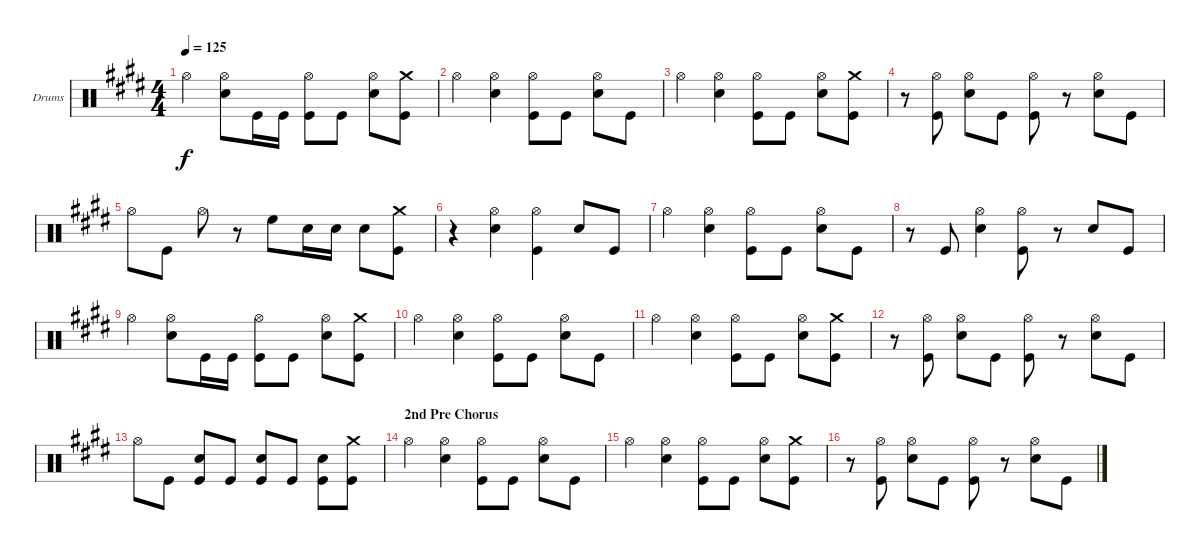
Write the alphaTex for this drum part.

\bracketExtendMode groupsimilarinstruments
\firstSystemTrackNameOrientation horizontal
\otherSystemsTrackNameOrientation horizontal
\track ("Drumkit" "Drums") {instrument percussion}
\staff {score}
\articulation defaults
\ts (4 4)
\tempo 125
\clef neutral
\ks e "Hi-Hat (open)".4{dy f}
("Hi-Hat (open)" "Snare (hit) 2").8 "Kick (hit)".16 "Kick (hit)".16 ("Hi-Hat (open)" "Kick (hit)").8 "Kick (hit)".8 ("Hi-Hat (open)" "Snare (hit) 2").8 ("Crash medium (hit)" "Kick (hit)").8 |
"Hi-Hat (open)".4 ("Hi-Hat (open)" "Snare (hit) 2").4 ("Hi-Hat (open)" "Kick (hit)").8 "Kick (hit)".8 ("Hi-Hat (open)" "Snare (hit) 2").8 "Kick (hit)".8 |
"Hi-Hat (open)".4 ("Hi-Hat (open)" "Snare (hit) 2").4 ("Hi-Hat (open)" "Kick (hit)").8 "Kick (hit)".8 ("Hi-Hat (open)" "Snare (hit) 2").8 ("Crash medium (hit)" "Kick (hit)").8 |
r.8 ("Hi-Hat (open)" "Kick (hit)").8 ("Hi-Hat (open)" "Snare (hit) 2").8 "Kick (hit)".8 ("Hi-Hat (open)" "Kick (hit)").8 r.8 ("Hi-Hat (open)" "Snare (hit) 2").8 "Kick (hit)".8 |
"Hi-Hat (open)".8 "Kick (hit)".8 "Hi-Hat (open)".8 r.8 "High Floor Tom (hit)".8 "Snare (hit) 2".16 "Snare (hit) 2".16 "Snare (hit) 2".8 ("Crash medium (hit)" "Kick (hit)").8 |
r.4 ("Hi-Hat (open)" "Snare (hit) 2").4 ("Hi-Hat (open)" "Kick (hit)").4 "Snare (hit) 2".8 "Kick (hit)".8 |
"Hi-Hat (open)".4 ("Hi-Hat (open)" "Snare (hit) 2").4 ("Hi-Hat (open)" "Kick (hit)").8 "Kick (hit)".8 ("Hi-Hat (open)" "Snare (hit) 2").8 "Kick (hit)".8 |
r.8 "Kick (hit)".8 ("Hi-Hat (open)" "Snare (hit) 2").4 ("Hi-Hat (open)" "Kick (hit)").8 r.8 "Snare (hit) 2".8 "Kick (hit)".8 |
"Hi-Hat (open)".4 ("Hi-Hat (open)" "Snare (hit) 2").8 "Kick (hit)".16 "Kick (hit)".16 ("Hi-Hat (open)" "Kick (hit)").8 "Kick (hit)".8 ("Hi-Hat (open)" "Snare (hit) 2").8 ("Crash medium (hit)" "Kick (hit)").8 |
"Hi-Hat (open)".4 ("Hi-Hat (open)" "Snare (hit) 2").4 ("Hi-Hat (open)" "Kick (hit)").8 "Kick (hit)".8 ("Hi-Hat (open)" "Snare (hit) 2").8 "Kick (hit)".8 |
"Hi-Hat (open)".4 ("Hi-Hat (open)" "Snare (hit) 2").4 ("Hi-Hat (open)" "Kick (hit)").8 "Kick (hit)".8 ("Hi-Hat (open)" "Snare (hit) 2").8 ("Crash medium (hit)" "Kick (hit)").8 |
r.8 ("Hi-Hat (open)" "Kick (hit)").8 ("Hi-Hat (open)" "Snare (hit) 2").8 "Kick (hit)".8 ("Hi-Hat (open)" "Kick (hit)").8 r.8 ("Hi-Hat (open)" "Snare (hit) 2").8 "Kick (hit)".8 |
"Hi-Hat (open)".8 "Kick (hit)".8 ("Snare (hit) 2" "Kick (hit)").8 "Kick (hit)".8 ("Snare (hit) 2" "Kick (hit)").8 "Kick (hit)".8 ("Snare (hit) 2" "Kick (hit)").8 ("Crash medium (hit)" "Kick (hit)").8 |
\section ("" "2nd Pre Chorus")
"Hi-Hat (open)".4 ("Hi-Hat (open)" "Snare (hit) 2").4 ("Hi-Hat (open)" "Kick (hit)").8 "Kick (hit)".8 ("Hi-Hat (open)" "Snare (hit) 2").8 "Kick (hit)".8 |
"Hi-Hat (open)".4 ("Hi-Hat (open)" "Snare (hit) 2").4 ("Hi-Hat (open)" "Kick (hit)").8 "Kick (hit)".8 ("Hi-Hat (open)" "Snare (hit) 2").8 ("Crash medium (hit)" "Kick (hit)").8 |
r.8 ("Hi-Hat (open)" "Kick (hit)").8 ("Hi-Hat (open)" "Snare (hit) 2").8 "Kick (hit)".8 ("Hi-Hat (open)" "Kick (hit)").8 r.8 ("Hi-Hat (open)" "Snare (hit) 2").8 "Kick (hit)".8
